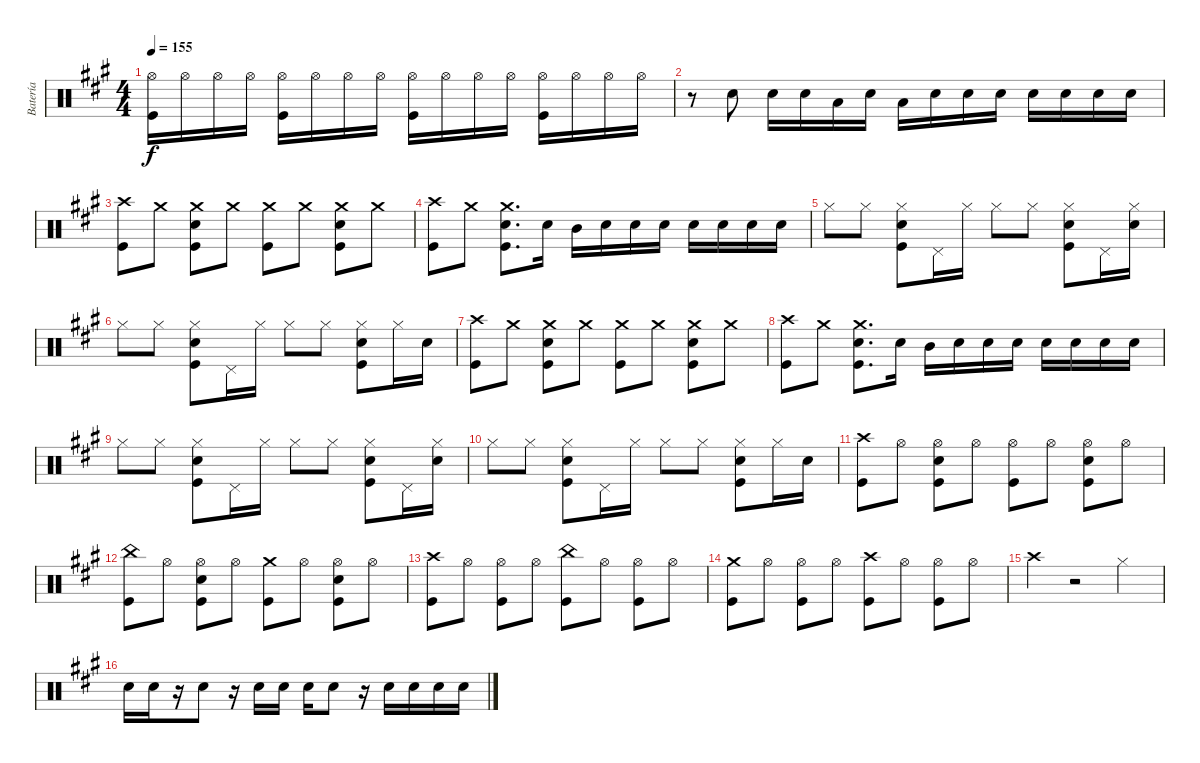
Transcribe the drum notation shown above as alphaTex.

\track ("Batería" "Batería") {instrument percussion}
\staff {score}
\articulation defaults
\ts (4 4)
\tempo 155
\clef neutral
\ks f#minor
("Hi-Hat (open)" "Kick (hit)").16{dy f} "Hi-Hat (open)".16 "Hi-Hat (open)".16 "Hi-Hat (open)".16 ("Hi-Hat (open)" "Kick (hit)").16 "Hi-Hat (open)".16 "Hi-Hat (open)".16 "Hi-Hat (open)".16 ("Hi-Hat (open)" "Kick (hit)").16 "Hi-Hat (open)".16 "Hi-Hat (open)".16 "Hi-Hat (open)".16 ("Hi-Hat (open)" "Kick (hit)").16 "Hi-Hat (open)".16 "Hi-Hat (open)".16 "Hi-Hat (open)".16 |
r.8 "Snare (hit) 2".8 "Snare (hit) 2".16 "Snare (hit) 2".16 "Low Tom (hit)".16 "Snare (hit) 2".16 "Low Tom (hit)".16 "Snare (hit) 2".16 "Snare (hit) 2".16 "Snare (hit) 2".16 "Snare (hit) 2".16 "Snare (hit) 2".16 "Snare (hit) 2".16 "Snare (hit) 2".16 |
("Crash high (hit)" "Kick (hit)").8 "Crash medium (hit)".8 ("Snare (hit) 2" "Crash medium (hit)" "Kick (hit)").8 "Crash medium (hit)".8 ("Crash medium (hit)" "Kick (hit)").8 "Crash medium (hit)".8 ("Snare (hit) 2" "Crash medium (hit)" "Kick (hit)").8 "Crash medium (hit)".8 |
("Crash high (hit)" "Kick (hit)").8 "Crash medium (hit)".8 ("Snare (hit) 2" "Crash medium (hit)" "Kick (hit)").8{d} "Snare (hit) 2".16 "Mid Tom (hit)".16 "Snare (hit) 2".16 "Snare (hit) 2".16 "Snare (hit) 2".16 "Snare (hit) 2".16 "Snare (hit) 2".16 "Snare (hit) 2".16 "Snare (hit) 2".16 |
"Hi-Hat (closed)".8 "Hi-Hat (closed)".8 ("Snare (hit) 2" "Hi-Hat (closed)" "Kick (hit)").8 "Pedal Hi-Hat (hit)".16 "Hi-Hat (closed)".16 "Hi-Hat (closed)".8 "Hi-Hat (closed)".8 ("Snare (hit) 2" "Hi-Hat (closed)" "Kick (hit)").8 "Pedal Hi-Hat (hit)".16 ("Snare (hit) 2" "Hi-Hat (closed)").16 |
"Hi-Hat (closed)".8 "Hi-Hat (closed)".8 ("Snare (hit) 2" "Hi-Hat (closed)" "Kick (hit)").8 "Pedal Hi-Hat (hit)".16 "Hi-Hat (closed)".16 "Hi-Hat (closed)".8 "Hi-Hat (closed)".8 ("Snare (hit) 2" "Hi-Hat (closed)" "Kick (hit)").8 "Hi-Hat (closed)".16 "Snare (hit) 2".16 |
("Crash high (hit)" "Kick (hit)").8 "Crash medium (hit)".8 ("Snare (hit) 2" "Crash medium (hit)" "Kick (hit)").8 "Crash medium (hit)".8 ("Crash medium (hit)" "Kick (hit)").8 "Crash medium (hit)".8 ("Snare (hit) 2" "Crash medium (hit)" "Kick (hit)").8 "Crash medium (hit)".8 |
("Crash high (hit)" "Kick (hit)").8 "Crash medium (hit)".8 ("Snare (hit) 2" "Crash medium (hit)" "Kick (hit)").8{d} "Snare (hit) 2".16 "Mid Tom (hit)".16 "Snare (hit) 2".16 "Snare (hit) 2".16 "Snare (hit) 2".16 "Snare (hit) 2".16 "Snare (hit) 2".16 "Snare (hit) 2".16 "Snare (hit) 2".16 |
"Hi-Hat (closed)".8 "Hi-Hat (closed)".8 ("Snare (hit) 2" "Hi-Hat (closed)" "Kick (hit)").8 "Pedal Hi-Hat (hit)".16 "Hi-Hat (closed)".16 "Hi-Hat (closed)".8 "Hi-Hat (closed)".8 ("Snare (hit) 2" "Hi-Hat (closed)" "Kick (hit)").8 "Pedal Hi-Hat (hit)".16 ("Snare (hit) 2" "Hi-Hat (closed)").16 |
"Hi-Hat (closed)".8 "Hi-Hat (closed)".8 ("Snare (hit) 2" "Hi-Hat (closed)" "Kick (hit)").8 "Pedal Hi-Hat (hit)".16 "Hi-Hat (closed)".16 "Hi-Hat (closed)".8 "Hi-Hat (closed)".8 ("Snare (hit) 2" "Hi-Hat (closed)" "Kick (hit)").8 "Hi-Hat (closed)".16 "Snare (hit) 2".16 |
("Crash high (hit)" "Kick (hit)").8 "Hi-Hat (open)".8 ("Snare (hit) 2" "Hi-Hat (open)" "Kick (hit)").8 "Hi-Hat (open)".8 ("Hi-Hat (open)" "Kick (hit)").8 "Hi-Hat (open)".8 ("Snare (hit) 2" "Hi-Hat (open)" "Kick (hit)").8 "Hi-Hat (open)".8 |
("China (hit)" "Kick (hit)").8 "Hi-Hat (open)".8 ("Snare (hit) 2" "Hi-Hat (open)" "Kick (hit)").8 "Hi-Hat (open)".8 ("Crash medium (hit)" "Kick (hit)").8 "Hi-Hat (open)".8 ("Snare (hit) 2" "Hi-Hat (open)" "Kick (hit)").8 "Hi-Hat (open)".8 |
("Crash high (hit)" "Kick (hit)").8 "Hi-Hat (open)".8 ("Hi-Hat (open)" "Kick (hit)").8 "Hi-Hat (open)".8 ("China (hit)" "Kick (hit)").8 "Hi-Hat (open)".8 ("Hi-Hat (open)" "Kick (hit)").8 "Hi-Hat (open)".8 |
("Crash medium (hit)" "Kick (hit)").8 "Hi-Hat (open)".8 ("Hi-Hat (open)" "Kick (hit)").8 "Hi-Hat (open)".8 ("Crash high (hit)" "Kick (hit)").8 "Hi-Hat (open)".8 ("Hi-Hat (open)" "Kick (hit)").8 "Hi-Hat (open)".8 |
"Crash high (hit)".4 r.2 "Hi-Hat (closed)".4 |
"Snare (hit) 2".16 "Snare (hit) 2".16 r.16 "Snare (hit) 2".8 r.16 "Snare (hit) 2".16 "Snare (hit) 2".16 "Snare (hit) 2".16 "Snare (hit) 2".8 r.16 "Snare (hit) 2".16 "Snare (hit) 2".16 "Snare (hit) 2".16 "Snare (hit) 2".16
